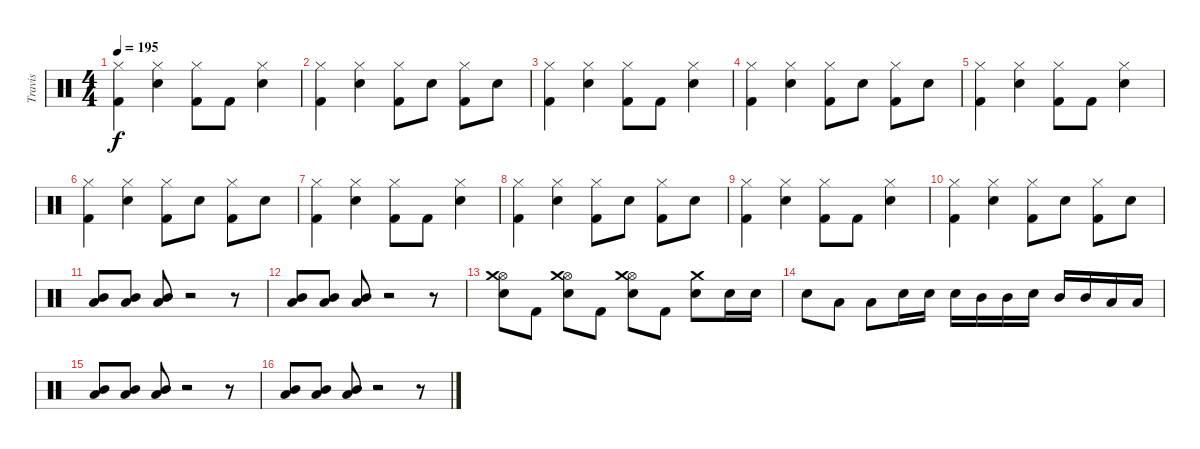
\track ("Travis" "Travis") {instrument percussion}
\staff {score}
\articulation defaults
\ts (4 4)
\tempo 195
\clef neutral
\ks c
("Kick (hit) 2" "Hi-Hat (closed)").4{dy f} ("Electric Snare (hit)" "Hi-Hat (closed)").4 ("Kick (hit) 2" "Hi-Hat (closed)").8 "Kick (hit) 2".8 ("Electric Snare (hit)" "Hi-Hat (closed)").4 |
("Kick (hit) 2" "Hi-Hat (closed)").4 ("Electric Snare (hit)" "Hi-Hat (closed)").4 ("Kick (hit) 2" "Hi-Hat (closed)").8 "Electric Snare (hit)".8 ("Kick (hit) 2" "Hi-Hat (closed)").8 "Electric Snare (hit)".8 |
("Kick (hit) 2" "Hi-Hat (closed)").4 ("Electric Snare (hit)" "Hi-Hat (closed)").4 ("Kick (hit) 2" "Hi-Hat (closed)").8 "Kick (hit) 2".8 ("Electric Snare (hit)" "Hi-Hat (closed)").4 |
("Kick (hit) 2" "Hi-Hat (closed)").4 ("Electric Snare (hit)" "Hi-Hat (closed)").4 ("Kick (hit) 2" "Hi-Hat (closed)").8 "Electric Snare (hit)".8 ("Kick (hit) 2" "Hi-Hat (closed)").8 "Electric Snare (hit)".8 |
("Kick (hit) 2" "Hi-Hat (closed)").4 ("Electric Snare (hit)" "Hi-Hat (closed)").4 ("Kick (hit) 2" "Hi-Hat (closed)").8 "Kick (hit) 2".8 ("Electric Snare (hit)" "Hi-Hat (closed)").4 |
("Kick (hit) 2" "Hi-Hat (closed)").4 ("Electric Snare (hit)" "Hi-Hat (closed)").4 ("Kick (hit) 2" "Hi-Hat (closed)").8 "Electric Snare (hit)".8 ("Kick (hit) 2" "Hi-Hat (closed)").8 "Electric Snare (hit)".8 |
("Kick (hit) 2" "Hi-Hat (closed)").4 ("Electric Snare (hit)" "Hi-Hat (closed)").4 ("Kick (hit) 2" "Hi-Hat (closed)").8 "Kick (hit) 2".8 ("Electric Snare (hit)" "Hi-Hat (closed)").4 |
("Kick (hit) 2" "Hi-Hat (closed)").4 ("Electric Snare (hit)" "Hi-Hat (closed)").4 ("Kick (hit) 2" "Hi-Hat (closed)").8 "Electric Snare (hit)".8 ("Kick (hit) 2" "Hi-Hat (closed)").8 "Electric Snare (hit)".8 |
("Kick (hit) 2" "Hi-Hat (closed)").4 ("Electric Snare (hit)" "Hi-Hat (closed)").4 ("Kick (hit) 2" "Hi-Hat (closed)").8 "Kick (hit) 2".8 ("Electric Snare (hit)" "Hi-Hat (closed)").4 |
("Kick (hit) 2" "Hi-Hat (closed)").4 ("Electric Snare (hit)" "Hi-Hat (closed)").4 ("Kick (hit) 2" "Hi-Hat (closed)").8 "Electric Snare (hit)".8 ("Kick (hit) 2" "Hi-Hat (closed)").8 "Electric Snare (hit)".8 |
("Low Floor Tom (hit)" "Mid Tom (hit)").8 ("Low Floor Tom (hit)" "Mid Tom (hit)").8 ("Low Floor Tom (hit)" "Mid Tom (hit)").8 r.2 r.8 |
("Low Floor Tom (hit)" "Mid Tom (hit)").8 ("Low Floor Tom (hit)" "Mid Tom (hit)").8 ("Low Floor Tom (hit)" "Mid Tom (hit)").8 r.2 r.8 |
("Hi-Hat (open)" "Electric Snare (hit)" "Crash medium (hit)").8 "Kick (hit) 2".8 ("Hi-Hat (open)" "Electric Snare (hit)" "Crash medium (hit)").8 "Kick (hit) 2".8 ("Hi-Hat (open)" "Electric Snare (hit)" "Crash medium (hit)").8 "Kick (hit) 2".8 ("Electric Snare (hit)" "Crash medium (hit)").8 "Electric Snare (hit)".16 "Electric Snare (hit)".16 |
"Electric Snare (hit)".8 "Low Floor Tom (hit)".8 "Low Floor Tom (hit)".8 "Electric Snare (hit)".16 "Electric Snare (hit)".16 "Electric Snare (hit)".16 "Mid Tom (hit)".16 "Mid Tom (hit)".16 "Electric Snare (hit)".16 "Mid Tom (hit)".16 "Mid Tom (hit)".16 "Low Floor Tom (hit)".16 "Low Floor Tom (hit)".16 |
("Low Floor Tom (hit)" "Mid Tom (hit)").8 ("Low Floor Tom (hit)" "Mid Tom (hit)").8 ("Low Floor Tom (hit)" "Mid Tom (hit)").8 r.2 r.8 |
("Low Floor Tom (hit)" "Mid Tom (hit)").8 ("Low Floor Tom (hit)" "Mid Tom (hit)").8 ("Low Floor Tom (hit)" "Mid Tom (hit)").8 r.2 r.8
